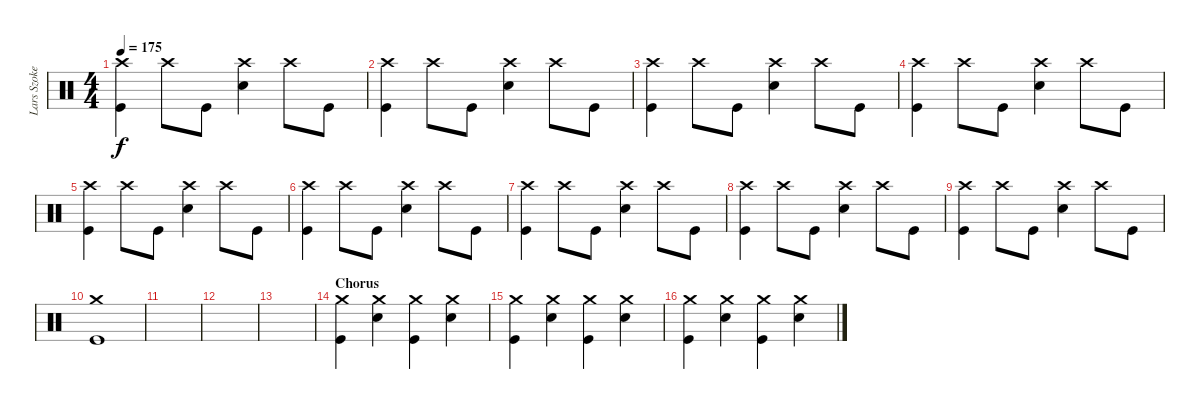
\track ("Lars Szoke" "Lars Szoke") {instrument percussion}
\staff {score}
\articulation defaults
\ts (4 4)
\tempo 175
\clef neutral
\ks c
("Crash high (hit)" "Kick (hit)").4{dy f} "Crash high (hit)".8 "Kick (hit)".8 ("Crash high (hit)" "Electric Snare (hit)").4 "Crash high (hit)".8 "Kick (hit)".8 |
("Crash high (hit)" "Kick (hit)").4 "Crash high (hit)".8 "Kick (hit)".8 ("Crash high (hit)" "Electric Snare (hit)").4 "Crash high (hit)".8 "Kick (hit)".8 |
("Crash high (hit)" "Kick (hit)").4 "Crash high (hit)".8 "Kick (hit)".8 ("Crash high (hit)" "Electric Snare (hit)").4 "Crash high (hit)".8 "Kick (hit)".8 |
("Crash high (hit)" "Kick (hit)").4 "Crash high (hit)".8 "Kick (hit)".8 ("Crash high (hit)" "Electric Snare (hit)").4 "Crash high (hit)".8 "Kick (hit)".8 |
("Crash high (hit)" "Kick (hit)").4 "Crash high (hit)".8 "Kick (hit)".8 ("Crash high (hit)" "Electric Snare (hit)").4 "Crash high (hit)".8 "Kick (hit)".8 |
("Crash high (hit)" "Kick (hit)").4 "Crash high (hit)".8 "Kick (hit)".8 ("Crash high (hit)" "Electric Snare (hit)").4 "Crash high (hit)".8 "Kick (hit)".8 |
("Crash high (hit)" "Kick (hit)").4 "Crash high (hit)".8 "Kick (hit)".8 ("Crash high (hit)" "Electric Snare (hit)").4 "Crash high (hit)".8 "Kick (hit)".8 |
("Crash high (hit)" "Kick (hit)").4 "Crash high (hit)".8 "Kick (hit)".8 ("Crash high (hit)" "Electric Snare (hit)").4 "Crash high (hit)".8 "Kick (hit)".8 |
("Crash high (hit)" "Kick (hit)").4 "Crash high (hit)".8 "Kick (hit)".8 ("Crash high (hit)" "Electric Snare (hit)").4 "Crash high (hit)".8 "Kick (hit)".8 |
("Crash medium (hit)" "Kick (hit)").1 |
|
|
|
\section ("" "Chorus")
("Crash medium (hit)" "Kick (hit)").4 ("Crash medium (hit)" "Electric Snare (hit)").4 ("Crash medium (hit)" "Kick (hit)").4 ("Crash medium (hit)" "Electric Snare (hit)").4 |
("Crash medium (hit)" "Kick (hit)").4 ("Crash medium (hit)" "Electric Snare (hit)").4 ("Crash medium (hit)" "Kick (hit)").4 ("Crash medium (hit)" "Electric Snare (hit)").4 |
("Crash medium (hit)" "Kick (hit)").4 ("Crash medium (hit)" "Electric Snare (hit)").4 ("Crash medium (hit)" "Kick (hit)").4 ("Crash medium (hit)" "Electric Snare (hit)").4
